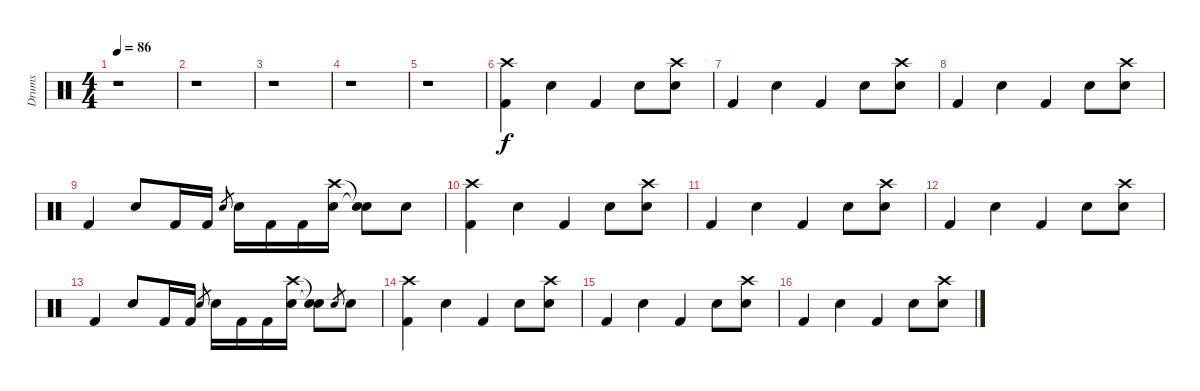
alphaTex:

\track ("Drums" "Drums") {instrument percussion}
\staff {score}
\articulation defaults
\ts (4 4)
\tempo 86
\clef neutral
\ks c
r.1{dy f} |
r.1 |
r.1 |
r.1 |
r.1 |
("Crash high (hit)" "Kick (hit) 2").4 "Electric Snare (hit)".4 "Kick (hit) 2".4 "Electric Snare (hit)".8 ("Crash high (hit)" "Electric Snare (hit)").8 |
"Kick (hit) 2".4 "Electric Snare (hit)".4 "Kick (hit) 2".4 "Electric Snare (hit)".8 ("Crash high (hit)" "Electric Snare (hit)").8 |
"Kick (hit) 2".4 "Electric Snare (hit)".4 "Kick (hit) 2".4 "Electric Snare (hit)".8 ("Crash high (hit)" "Electric Snare (hit)").8 |
"Kick (hit) 2".4 "Electric Snare (hit)".8 "Kick (hit) 2".16 "Kick (hit) 2".16 "Electric Snare (hit)".8{gr} "Electric Snare (hit)".16 "Kick (hit) 2".16 "Kick (hit) 2".16 ("Crash high (hit)" "Electric Snare (hit)").16 ("Snare (hit)"{t} "Snare (hit)"{t}).8 "Electric Snare (hit)".8 |
("Crash high (hit)" "Kick (hit) 2").4 "Electric Snare (hit)".4 "Kick (hit) 2".4 "Electric Snare (hit)".8 ("Crash high (hit)" "Electric Snare (hit)").8 |
"Kick (hit) 2".4 "Electric Snare (hit)".4 "Kick (hit) 2".4 "Electric Snare (hit)".8 ("Crash high (hit)" "Electric Snare (hit)").8 |
"Kick (hit) 2".4 "Electric Snare (hit)".4 "Kick (hit) 2".4 "Electric Snare (hit)".8 ("Crash high (hit)" "Electric Snare (hit)").8 |
"Kick (hit) 2".4 "Electric Snare (hit)".8 "Kick (hit) 2".16 "Kick (hit) 2".16 "Electric Snare (hit)".8{gr} "Electric Snare (hit)".16 "Kick (hit) 2".16 "Kick (hit) 2".16 ("Crash high (hit)" "Electric Snare (hit)").16 ("Snare (hit)"{t} "Snare (hit)"{t}).8 "Electric Snare (hit)".8{gr} "Electric Snare (hit)".8 |
("Crash high (hit)" "Kick (hit) 2").4 "Electric Snare (hit)".4 "Kick (hit) 2".4 "Electric Snare (hit)".8 ("Crash high (hit)" "Electric Snare (hit)").8 |
"Kick (hit) 2".4 "Electric Snare (hit)".4 "Kick (hit) 2".4 "Electric Snare (hit)".8 ("Crash high (hit)" "Electric Snare (hit)").8 |
"Kick (hit) 2".4 "Electric Snare (hit)".4 "Kick (hit) 2".4 "Electric Snare (hit)".8 ("Crash high (hit)" "Electric Snare (hit)").8
